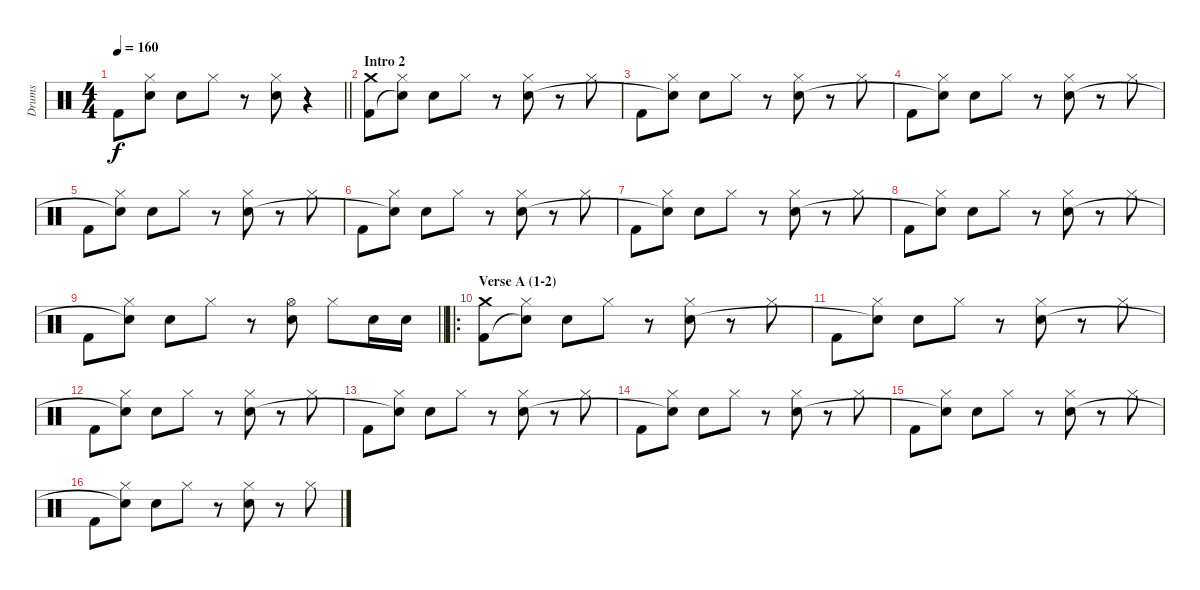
\track ("Drums" "Drums") {instrument percussion}
\staff {score}
\articulation defaults
\ts (4 4)
\tempo 160
\clef neutral
\barLineRight lightlight
\ks c "Kick (hit) 2".8{dy f}
("Hi-Hat (closed)" "Snare (hit)"{t}).8 "Electric Snare (hit)".8 "Hi-Hat (closed)".8 r.8 ("Hi-Hat (closed)" "Electric Snare (hit)").8 r.4 |
\section ("" "Intro 2")
("Crash medium (hit)" "Kick (hit) 2").8 ("Hi-Hat (closed)" "Snare (hit)"{t}).8 "Electric Snare (hit)".8 "Hi-Hat (closed)".8 r.8 ("Hi-Hat (closed)" "Electric Snare (hit)").8 r.8 "Hi-Hat (closed)".8 |
"Kick (hit) 2".8 ("Hi-Hat (closed)" "Snare (hit)"{t}).8 "Electric Snare (hit)".8 "Hi-Hat (closed)".8 r.8 ("Hi-Hat (closed)" "Electric Snare (hit)").8 r.8 "Hi-Hat (closed)".8 |
"Kick (hit) 2".8 ("Hi-Hat (closed)" "Snare (hit)"{t}).8 "Electric Snare (hit)".8 "Hi-Hat (closed)".8 r.8 ("Hi-Hat (closed)" "Electric Snare (hit)").8 r.8 "Hi-Hat (closed)".8 |
"Kick (hit) 2".8 ("Hi-Hat (closed)" "Snare (hit)"{t}).8 "Electric Snare (hit)".8 "Hi-Hat (closed)".8 r.8 ("Hi-Hat (closed)" "Electric Snare (hit)").8 r.8 "Hi-Hat (closed)".8 |
"Kick (hit) 2".8 ("Hi-Hat (closed)" "Snare (hit)"{t}).8 "Electric Snare (hit)".8 "Hi-Hat (closed)".8 r.8 ("Hi-Hat (closed)" "Electric Snare (hit)").8 r.8 "Hi-Hat (closed)".8 |
"Kick (hit) 2".8 ("Hi-Hat (closed)" "Snare (hit)"{t}).8 "Electric Snare (hit)".8 "Hi-Hat (closed)".8 r.8 ("Hi-Hat (closed)" "Electric Snare (hit)").8 r.8 "Hi-Hat (closed)".8 |
"Kick (hit) 2".8 ("Hi-Hat (closed)" "Snare (hit)"{t}).8 "Electric Snare (hit)".8 "Hi-Hat (closed)".8 r.8 ("Hi-Hat (closed)" "Electric Snare (hit)").8 r.8 "Hi-Hat (closed)".8 |
\barLineRight lightlight "Kick (hit) 2".8
("Hi-Hat (closed)" "Snare (hit)"{t}).8 "Electric Snare (hit)".8 "Hi-Hat (closed)".8 r.8 ("Hi-Hat (open)" "Electric Snare (hit)").8 "Hi-Hat (closed)".8 "Electric Snare (hit)".16 "Electric Snare (hit)".16 |
\ro
\section ("" "Verse A (1-2)")
("Crash medium (hit)" "Kick (hit) 2").8 ("Hi-Hat (closed)" "Snare (hit)"{t}).8 "Electric Snare (hit)".8 "Hi-Hat (closed)".8 r.8 ("Hi-Hat (closed)" "Electric Snare (hit)").8 r.8 "Hi-Hat (closed)".8 |
"Kick (hit) 2".8 ("Hi-Hat (closed)" "Snare (hit)"{t}).8 "Electric Snare (hit)".8 "Hi-Hat (closed)".8 r.8 ("Hi-Hat (closed)" "Electric Snare (hit)").8 r.8 "Hi-Hat (closed)".8 |
"Kick (hit) 2".8 ("Hi-Hat (closed)" "Snare (hit)"{t}).8 "Electric Snare (hit)".8 "Hi-Hat (closed)".8 r.8 ("Hi-Hat (closed)" "Electric Snare (hit)").8 r.8 "Hi-Hat (closed)".8 |
"Kick (hit) 2".8 ("Hi-Hat (closed)" "Snare (hit)"{t}).8 "Electric Snare (hit)".8 "Hi-Hat (closed)".8 r.8 ("Hi-Hat (closed)" "Electric Snare (hit)").8 r.8 "Hi-Hat (closed)".8 |
"Kick (hit) 2".8 ("Hi-Hat (closed)" "Snare (hit)"{t}).8 "Electric Snare (hit)".8 "Hi-Hat (closed)".8 r.8 ("Hi-Hat (closed)" "Electric Snare (hit)").8 r.8 "Hi-Hat (closed)".8 |
"Kick (hit) 2".8 ("Hi-Hat (closed)" "Snare (hit)"{t}).8 "Electric Snare (hit)".8 "Hi-Hat (closed)".8 r.8 ("Hi-Hat (closed)" "Electric Snare (hit)").8 r.8 "Hi-Hat (closed)".8 |
"Kick (hit) 2".8 ("Hi-Hat (closed)" "Snare (hit)"{t}).8 "Electric Snare (hit)".8 "Hi-Hat (closed)".8 r.8 ("Hi-Hat (closed)" "Electric Snare (hit)").8 r.8 "Hi-Hat (closed)".8
